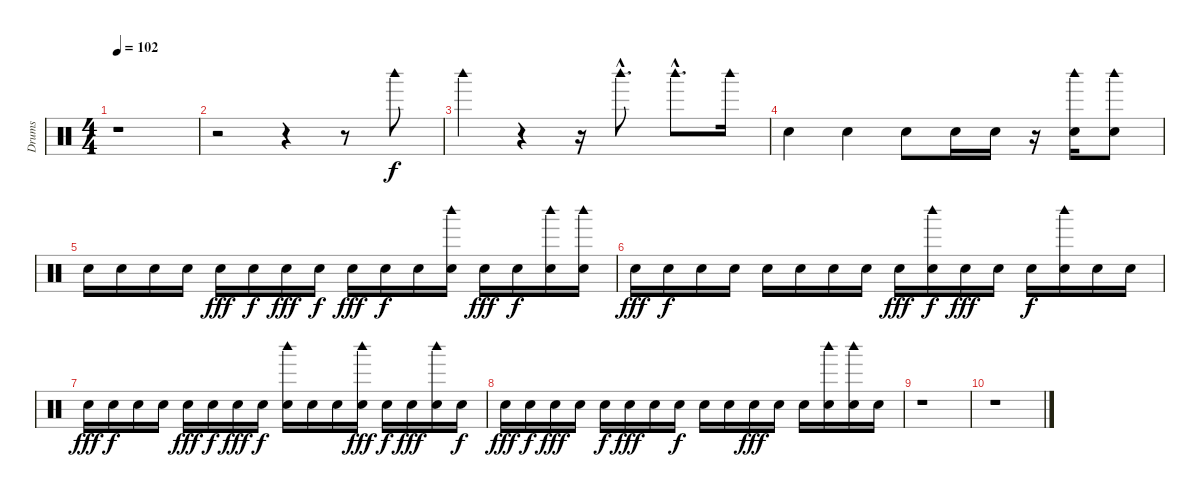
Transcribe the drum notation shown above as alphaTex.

\track ("Drums" "Drums") {instrument percussion}
\staff {score}
\articulation defaults
\ts (4 4)
\tempo 102
\clef neutral
\ks c
r.1{dy f} |
r.2 r.4 r.8 "Woodblock high (hit)".8 |
"Woodblock high (hit)".4 r.4 r.16 "Woodblock high (hit)"{hac}.8{d} "Woodblock high (hit)"{hac}.8{d} "Woodblock high (hit)".16 |
"Electric Snare (hit)".4 "Electric Snare (hit)".4 "Electric Snare (hit)".8 "Electric Snare (hit)".16 "Electric Snare (hit)".16 r.16 ("Electric Snare (hit)" "Woodblock high (hit)").16 ("Electric Snare (hit)" "Woodblock high (hit)").8 |
"Electric Snare (hit)".16 "Electric Snare (hit)".16 "Electric Snare (hit)".16 "Electric Snare (hit)".16 "Electric Snare (hit)".16{dy fff} "Electric Snare (hit)".16{dy f} "Electric Snare (hit)".16{dy fff} "Electric Snare (hit)".16{dy f} "Electric Snare (hit)".16{dy fff} "Electric Snare (hit)".16{dy f} "Electric Snare (hit)".16 ("Electric Snare (hit)" "Woodblock high (hit)").16 "Electric Snare (hit)".16{dy fff} "Electric Snare (hit)".16{dy f} ("Electric Snare (hit)" "Woodblock high (hit)").16 ("Electric Snare (hit)" "Woodblock high (hit)").16 |
"Electric Snare (hit)".16{dy fff} "Electric Snare (hit)".16{dy f} "Electric Snare (hit)".16 "Electric Snare (hit)".16 "Electric Snare (hit)".16 "Electric Snare (hit)".16 "Electric Snare (hit)".16 "Electric Snare (hit)".16 "Electric Snare (hit)".16{dy fff} ("Electric Snare (hit)" "Woodblock high (hit)").16{dy f} "Electric Snare (hit)".16{dy fff} "Electric Snare (hit)".16 "Electric Snare (hit)".16{dy f} ("Electric Snare (hit)" "Woodblock high (hit)").16 "Electric Snare (hit)".16 "Electric Snare (hit)".16 |
"Electric Snare (hit)".16{dy fff} "Electric Snare (hit)".16{dy f} "Electric Snare (hit)".16 "Electric Snare (hit)".16 "Electric Snare (hit)".16{dy fff} "Electric Snare (hit)".16{dy f} "Electric Snare (hit)".16{dy fff} "Electric Snare (hit)".16{dy f} ("Electric Snare (hit)" "Woodblock high (hit)").16 "Electric Snare (hit)".16 "Electric Snare (hit)".16 ("Electric Snare (hit)" "Woodblock high (hit)").16{dy fff} "Electric Snare (hit)".16{dy f} "Electric Snare (hit)".16{dy fff} ("Electric Snare (hit)" "Woodblock high (hit)").16 "Electric Snare (hit)".16{dy f} |
"Electric Snare (hit)".16{dy fff} "Electric Snare (hit)".16{dy f} "Electric Snare (hit)".16{dy fff} "Electric Snare (hit)".16 "Electric Snare (hit)".16{dy f} "Electric Snare (hit)".16{dy fff} "Electric Snare (hit)".16 "Electric Snare (hit)".16{dy f} "Electric Snare (hit)".16 "Electric Snare (hit)".16 "Electric Snare (hit)".16{dy fff} "Electric Snare (hit)".16 "Electric Snare (hit)".16 ("Electric Snare (hit)" "Woodblock high (hit)").16 ("Electric Snare (hit)" "Woodblock high (hit)").16 "Electric Snare (hit)".16 |
r.1 |
r.1
